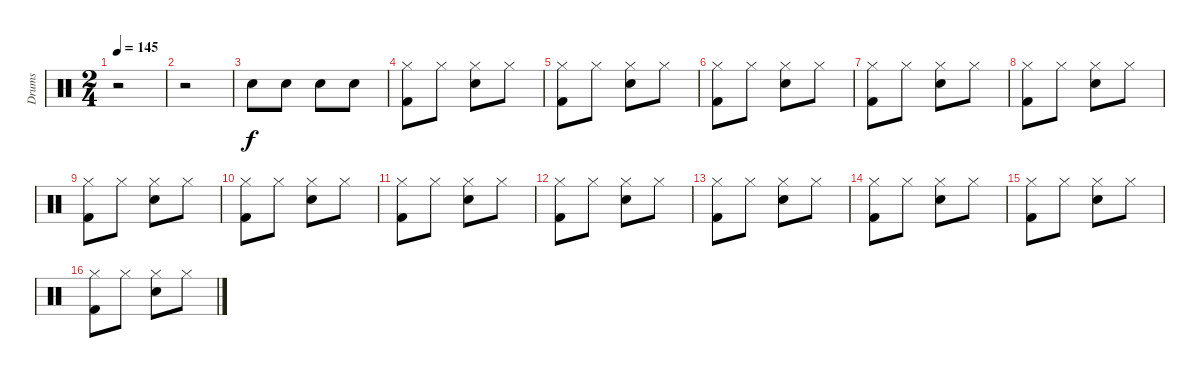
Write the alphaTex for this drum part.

\track ("Drums" "Drums") {instrument percussion}
\staff {score}
\articulation defaults
\ts (2 4)
\tempo 145
\clef neutral
\ks c
r.2{dy f} |
r.2 |
"Snare (hit) 2".8 "Snare (hit) 2".8 "Snare (hit) 2".8 "Snare (hit) 2".8 |
("Hi-Hat (closed)" "Kick (hit) 2").8 "Hi-Hat (closed)".8 ("Hi-Hat (closed)" "Snare (hit) 2").8 "Hi-Hat (closed)".8 |
("Hi-Hat (closed)" "Kick (hit) 2").8 "Hi-Hat (closed)".8 ("Hi-Hat (closed)" "Snare (hit) 2").8 "Hi-Hat (closed)".8 |
("Hi-Hat (closed)" "Kick (hit) 2").8 "Hi-Hat (closed)".8 ("Hi-Hat (closed)" "Snare (hit) 2").8 "Hi-Hat (closed)".8 |
("Hi-Hat (closed)" "Kick (hit) 2").8 "Hi-Hat (closed)".8 ("Hi-Hat (closed)" "Snare (hit) 2").8 "Hi-Hat (closed)".8 |
("Hi-Hat (closed)" "Kick (hit) 2").8 "Hi-Hat (closed)".8 ("Hi-Hat (closed)" "Snare (hit) 2").8 "Hi-Hat (closed)".8 |
("Hi-Hat (closed)" "Kick (hit) 2").8 "Hi-Hat (closed)".8 ("Hi-Hat (closed)" "Snare (hit) 2").8 "Hi-Hat (closed)".8 |
("Hi-Hat (closed)" "Kick (hit) 2").8 "Hi-Hat (closed)".8 ("Hi-Hat (closed)" "Snare (hit) 2").8 "Hi-Hat (closed)".8 |
("Hi-Hat (closed)" "Kick (hit) 2").8 "Hi-Hat (closed)".8 ("Hi-Hat (closed)" "Snare (hit) 2").8 "Hi-Hat (closed)".8 |
("Hi-Hat (closed)" "Kick (hit) 2").8 "Hi-Hat (closed)".8 ("Hi-Hat (closed)" "Snare (hit) 2").8 "Hi-Hat (closed)".8 |
("Hi-Hat (closed)" "Kick (hit) 2").8 "Hi-Hat (closed)".8 ("Hi-Hat (closed)" "Snare (hit) 2").8 "Hi-Hat (closed)".8 |
("Hi-Hat (closed)" "Kick (hit) 2").8 "Hi-Hat (closed)".8 ("Hi-Hat (closed)" "Snare (hit) 2").8 "Hi-Hat (closed)".8 |
("Hi-Hat (closed)" "Kick (hit) 2").8 "Hi-Hat (closed)".8 ("Hi-Hat (closed)" "Snare (hit) 2").8 "Hi-Hat (closed)".8 |
("Hi-Hat (closed)" "Kick (hit) 2").8 "Hi-Hat (closed)".8 ("Hi-Hat (closed)" "Snare (hit) 2").8 "Hi-Hat (closed)".8
